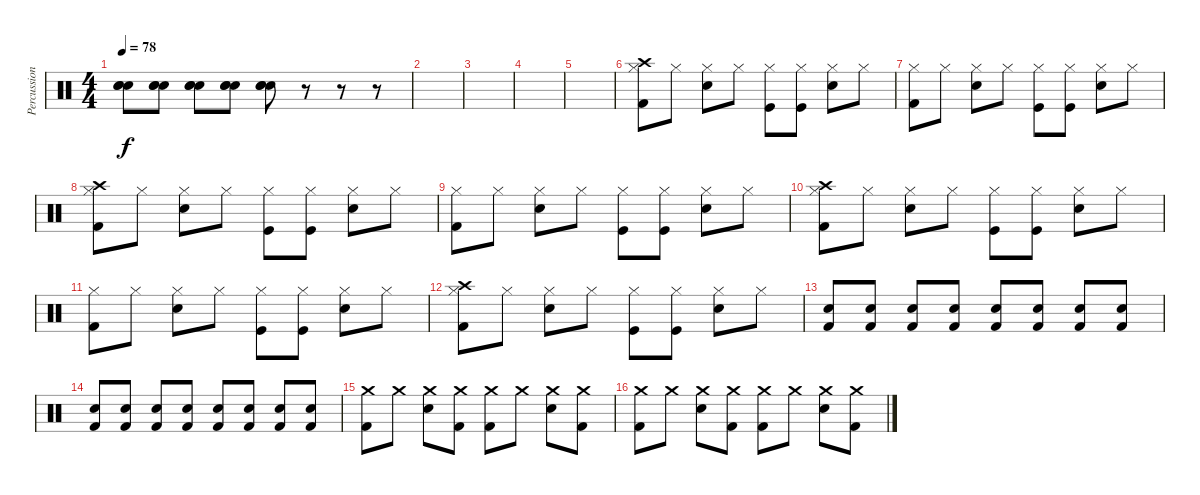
\track ("Percussion" "Percussion") {instrument percussion}
\staff {score}
\articulation defaults
\ts (4 4)
\tempo 78
\clef neutral
\ks c
("Snare (hit) 2" "Snare (hit) 2" "Snare (hit) 2").8{dy f} ("Snare (hit) 2" "Snare (hit) 2" "Snare (hit) 2").8 ("Snare (hit) 2" "Snare (hit) 2" "Snare (hit) 2").8 ("Snare (hit) 2" "Snare (hit) 2" "Snare (hit) 2").8 ("Snare (hit) 2" "Snare (hit) 2" "Snare (hit) 2").8 r.8 r.8 r.8 |
|
|
|
|
("Crash high (hit)" "Hi-Hat (closed)" "Kick (hit) 2").8 "Hi-Hat (closed)".8 ("Hi-Hat (closed)" "Electric Snare (hit)").8 "Hi-Hat (closed)".8 ("Hi-Hat (closed)" "Kick (hit)").8 ("Hi-Hat (closed)" "Kick (hit)").8 ("Hi-Hat (closed)" "Electric Snare (hit)").8 "Hi-Hat (closed)".8 |
("Hi-Hat (closed)" "Kick (hit) 2").8 "Hi-Hat (closed)".8 ("Hi-Hat (closed)" "Electric Snare (hit)").8 "Hi-Hat (closed)".8 ("Hi-Hat (closed)" "Kick (hit)").8 ("Hi-Hat (closed)" "Kick (hit)").8 ("Hi-Hat (closed)" "Electric Snare (hit)").8 "Hi-Hat (closed)".8 |
("Crash high (hit)" "Hi-Hat (closed)" "Kick (hit) 2").8 "Hi-Hat (closed)".8 ("Hi-Hat (closed)" "Electric Snare (hit)").8 "Hi-Hat (closed)".8 ("Hi-Hat (closed)" "Kick (hit)").8 ("Hi-Hat (closed)" "Kick (hit)").8 ("Hi-Hat (closed)" "Electric Snare (hit)").8 "Hi-Hat (closed)".8 |
("Hi-Hat (closed)" "Kick (hit) 2").8 "Hi-Hat (closed)".8 ("Hi-Hat (closed)" "Electric Snare (hit)").8 "Hi-Hat (closed)".8 ("Hi-Hat (closed)" "Kick (hit)").8 ("Hi-Hat (closed)" "Kick (hit)").8 ("Hi-Hat (closed)" "Electric Snare (hit)").8 "Hi-Hat (closed)".8 |
("Crash high (hit)" "Hi-Hat (closed)" "Kick (hit) 2").8 "Hi-Hat (closed)".8 ("Hi-Hat (closed)" "Electric Snare (hit)").8 "Hi-Hat (closed)".8 ("Hi-Hat (closed)" "Kick (hit)").8 ("Hi-Hat (closed)" "Kick (hit)").8 ("Hi-Hat (closed)" "Electric Snare (hit)").8 "Hi-Hat (closed)".8 |
("Hi-Hat (closed)" "Kick (hit) 2").8 "Hi-Hat (closed)".8 ("Hi-Hat (closed)" "Electric Snare (hit)").8 "Hi-Hat (closed)".8 ("Hi-Hat (closed)" "Kick (hit)").8 ("Hi-Hat (closed)" "Kick (hit)").8 ("Hi-Hat (closed)" "Electric Snare (hit)").8 "Hi-Hat (closed)".8 |
("Crash high (hit)" "Hi-Hat (closed)" "Kick (hit) 2").8 "Hi-Hat (closed)".8 ("Hi-Hat (closed)" "Electric Snare (hit)").8 "Hi-Hat (closed)".8 ("Hi-Hat (closed)" "Kick (hit)").8 ("Hi-Hat (closed)" "Kick (hit)").8 ("Hi-Hat (closed)" "Electric Snare (hit)").8 "Hi-Hat (closed)".8 |
("Snare (hit) 2" "Kick (hit) 2").8 ("Snare (hit) 2" "Kick (hit) 2").8 ("Snare (hit) 2" "Kick (hit) 2").8 ("Snare (hit) 2" "Kick (hit) 2").8 ("Snare (hit) 2" "Kick (hit) 2").8 ("Snare (hit) 2" "Kick (hit) 2").8 ("Snare (hit) 2" "Kick (hit) 2").8 ("Snare (hit) 2" "Kick (hit) 2").8 |
("Snare (hit) 2" "Kick (hit) 2").8 ("Snare (hit) 2" "Kick (hit) 2").8 ("Snare (hit) 2" "Kick (hit) 2").8 ("Snare (hit) 2" "Kick (hit) 2").8 ("Snare (hit) 2" "Kick (hit) 2").8 ("Snare (hit) 2" "Kick (hit) 2").8 ("Snare (hit) 2" "Kick (hit) 2").8 ("Snare (hit) 2" "Kick (hit) 2").8 |
("Crash medium (hit)" "Kick (hit) 2").8{volume 16} "Crash medium (hit)".8 ("Crash medium (hit)" "Snare (hit) 2").8 ("Crash medium (hit)" "Kick (hit) 2").8 ("Crash medium (hit)" "Kick (hit) 2").8 "Crash medium (hit)".8 ("Crash medium (hit)" "Snare (hit) 2").8 ("Crash medium (hit)" "Kick (hit) 2").8 |
("Crash medium (hit)" "Kick (hit) 2").8 "Crash medium (hit)".8 ("Crash medium (hit)" "Snare (hit) 2").8 ("Crash medium (hit)" "Kick (hit) 2").8 ("Crash medium (hit)" "Kick (hit) 2").8 "Crash medium (hit)".8 ("Crash medium (hit)" "Snare (hit) 2").8 ("Crash medium (hit)" "Kick (hit) 2").8
